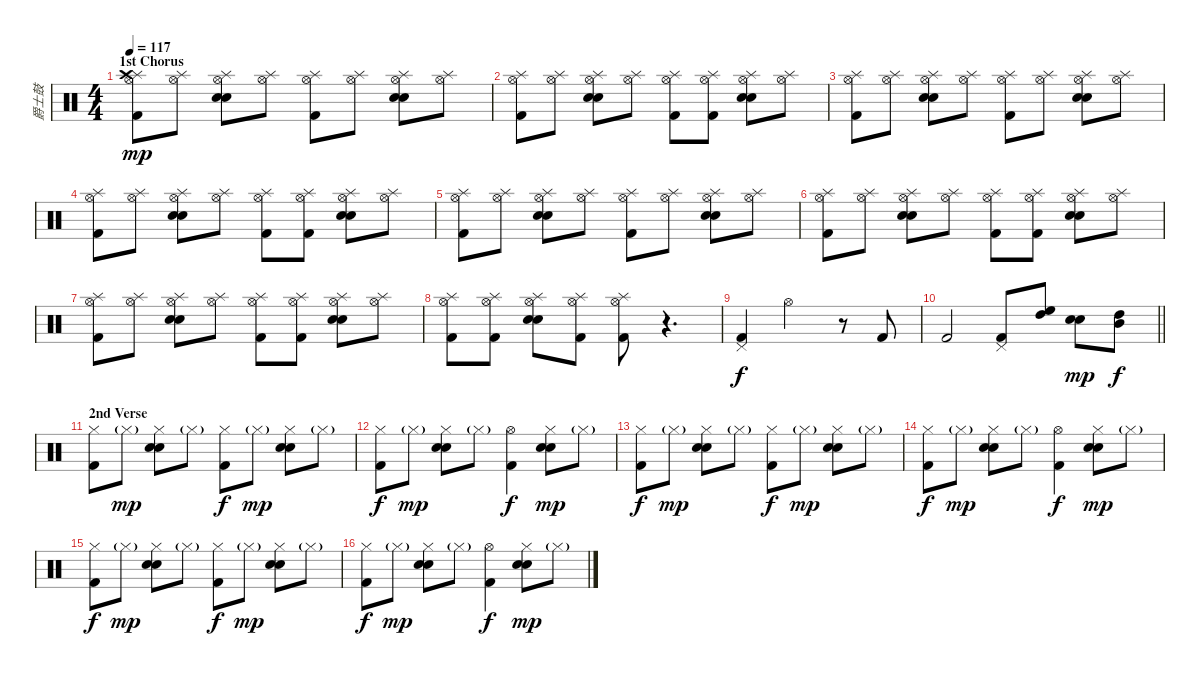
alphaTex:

\track ("爵士鼓" "爵士鼓") {instrument percussion}
\staff {score}
\articulation defaults
\ts (4 4)
\section ("" "1st Chorus")
\tempo 117
\clef neutral
\ks c
("Splash (hit)" "Crash high (hit)" "Hi-Hat (open)" "Kick (hit) 2").8{dy mp} ("Splash (hit)" "Hi-Hat (open)").8 ("Splash (hit)" "Hi-Hat (open)" "Electric Snare (hit)" "Snare (hit) 2").8 ("Splash (hit)" "Hi-Hat (open)").8 ("Splash (hit)" "Hi-Hat (open)" "Kick (hit) 2").8 ("Splash (hit)" "Hi-Hat (open)").8 ("Splash (hit)" "Hi-Hat (open)" "Electric Snare (hit)" "Snare (hit) 2").8 ("Splash (hit)" "Hi-Hat (open)").8 |
("Splash (hit)" "Hi-Hat (open)" "Kick (hit) 2").8 ("Splash (hit)" "Hi-Hat (open)").8 ("Splash (hit)" "Hi-Hat (open)" "Electric Snare (hit)" "Snare (hit) 2").8 ("Splash (hit)" "Hi-Hat (open)").8 ("Splash (hit)" "Hi-Hat (open)" "Kick (hit) 2").8 ("Splash (hit)" "Hi-Hat (open)" "Kick (hit) 2").8 ("Splash (hit)" "Hi-Hat (open)" "Electric Snare (hit)" "Snare (hit) 2").8 ("Splash (hit)" "Hi-Hat (open)").8 |
("Splash (hit)" "Hi-Hat (open)" "Kick (hit) 2").8 ("Splash (hit)" "Hi-Hat (open)").8 ("Splash (hit)" "Hi-Hat (open)" "Electric Snare (hit)" "Snare (hit) 2").8 ("Splash (hit)" "Hi-Hat (open)").8 ("Splash (hit)" "Hi-Hat (open)" "Kick (hit) 2").8 ("Splash (hit)" "Hi-Hat (open)").8 ("Splash (hit)" "Hi-Hat (open)" "Electric Snare (hit)" "Snare (hit) 2").8 ("Splash (hit)" "Hi-Hat (open)").8 |
("Splash (hit)" "Hi-Hat (open)" "Kick (hit) 2").8 ("Splash (hit)" "Hi-Hat (open)").8 ("Splash (hit)" "Hi-Hat (open)" "Electric Snare (hit)" "Snare (hit) 2").8 ("Splash (hit)" "Hi-Hat (open)").8 ("Splash (hit)" "Hi-Hat (open)" "Kick (hit) 2").8 ("Splash (hit)" "Hi-Hat (open)" "Kick (hit) 2").8 ("Splash (hit)" "Hi-Hat (open)" "Electric Snare (hit)" "Snare (hit) 2").8 ("Splash (hit)" "Hi-Hat (open)").8 |
("Splash (hit)" "Hi-Hat (open)" "Kick (hit) 2").8 ("Splash (hit)" "Hi-Hat (open)").8 ("Splash (hit)" "Hi-Hat (open)" "Electric Snare (hit)" "Snare (hit) 2").8 ("Splash (hit)" "Hi-Hat (open)").8 ("Splash (hit)" "Hi-Hat (open)" "Kick (hit) 2").8 ("Splash (hit)" "Hi-Hat (open)").8 ("Splash (hit)" "Hi-Hat (open)" "Electric Snare (hit)" "Snare (hit) 2").8 ("Splash (hit)" "Hi-Hat (open)").8 |
("Splash (hit)" "Hi-Hat (open)" "Kick (hit) 2").8 ("Splash (hit)" "Hi-Hat (open)").8 ("Splash (hit)" "Hi-Hat (open)" "Electric Snare (hit)" "Snare (hit) 2").8 ("Splash (hit)" "Hi-Hat (open)").8 ("Splash (hit)" "Hi-Hat (open)" "Kick (hit) 2").8 ("Splash (hit)" "Hi-Hat (open)" "Kick (hit) 2").8 ("Splash (hit)" "Hi-Hat (open)" "Electric Snare (hit)" "Snare (hit) 2").8 ("Splash (hit)" "Hi-Hat (open)").8 |
("Splash (hit)" "Hi-Hat (open)" "Kick (hit) 2").8 ("Splash (hit)" "Hi-Hat (open)").8 ("Splash (hit)" "Hi-Hat (open)" "Electric Snare (hit)" "Snare (hit) 2").8 ("Splash (hit)" "Hi-Hat (open)").8 ("Splash (hit)" "Hi-Hat (open)" "Kick (hit) 2").8 ("Splash (hit)" "Hi-Hat (open)" "Kick (hit) 2").8 ("Splash (hit)" "Hi-Hat (open)" "Electric Snare (hit)" "Snare (hit) 2").8 ("Splash (hit)" "Hi-Hat (open)").8 |
("Splash (hit)" "Hi-Hat (open)" "Kick (hit) 2").8 ("Splash (hit)" "Hi-Hat (open)" "Kick (hit) 2").8 ("Splash (hit)" "Hi-Hat (open)" "Electric Snare (hit)" "Snare (hit) 2").8 ("Splash (hit)" "Hi-Hat (open)" "Kick (hit) 2").8 ("Splash (hit)" "Hi-Hat (open)" "Kick (hit) 2").8 r.4{d} |
("Pedal Hi-Hat (hit)" "Kick (hit) 2").4{dy f} "Hi-Hat (open)".2 r.8 "Kick (hit) 2".8 |
\barLineRight lightlight "Kick (hit) 2".2
("Pedal Hi-Hat (hit)" "Kick (hit) 2").8 ("High Floor Tom (hit)" "High Tom (hit)").8 ("Electric Snare (hit)" "Snare (hit) 2").8{dy mp} ("Mid Tom (hit)" "High Tom (hit)").8{dy f} |
\section ("" "2nd Verse")
("Hi-Hat (closed)" "Kick (hit) 2").8 "Hi-Hat (closed)"{g}.8{dy mp} ("Hi-Hat (closed)" "Electric Snare (hit)" "Snare (hit) 2").8 "Hi-Hat (closed)"{g}.8 ("Hi-Hat (closed)" "Kick (hit) 2").8{dy f} "Hi-Hat (closed)"{g}.8{dy mp} ("Hi-Hat (closed)" "Electric Snare (hit)" "Snare (hit) 2").8 "Hi-Hat (closed)"{g}.8 |
("Hi-Hat (closed)" "Kick (hit) 2").8{dy f} "Hi-Hat (closed)"{g}.8{dy mp} ("Hi-Hat (closed)" "Electric Snare (hit)" "Snare (hit) 2").8 "Hi-Hat (closed)"{g}.8 ("Hi-Hat (open)" "Kick (hit) 2").4{dy f} ("Hi-Hat (closed)" "Electric Snare (hit)" "Snare (hit) 2").8{dy mp} "Hi-Hat (closed)"{g}.8 |
("Hi-Hat (closed)" "Kick (hit) 2").8{dy f} "Hi-Hat (closed)"{g}.8{dy mp} ("Hi-Hat (closed)" "Electric Snare (hit)" "Snare (hit) 2").8 "Hi-Hat (closed)"{g}.8 ("Hi-Hat (closed)" "Kick (hit) 2").8{dy f} "Hi-Hat (closed)"{g}.8{dy mp} ("Hi-Hat (closed)" "Electric Snare (hit)" "Snare (hit) 2").8 "Hi-Hat (closed)"{g}.8 |
("Hi-Hat (closed)" "Kick (hit) 2").8{dy f} "Hi-Hat (closed)"{g}.8{dy mp} ("Hi-Hat (closed)" "Electric Snare (hit)" "Snare (hit) 2").8 "Hi-Hat (closed)"{g}.8 ("Hi-Hat (open)" "Kick (hit) 2").4{dy f} ("Hi-Hat (closed)" "Electric Snare (hit)" "Snare (hit) 2").8{dy mp} "Hi-Hat (closed)"{g}.8 |
("Hi-Hat (closed)" "Kick (hit) 2").8{dy f} "Hi-Hat (closed)"{g}.8{dy mp} ("Hi-Hat (closed)" "Electric Snare (hit)" "Snare (hit) 2").8 "Hi-Hat (closed)"{g}.8 ("Hi-Hat (closed)" "Kick (hit) 2").8{dy f} "Hi-Hat (closed)"{g}.8{dy mp} ("Hi-Hat (closed)" "Electric Snare (hit)" "Snare (hit) 2").8 "Hi-Hat (closed)"{g}.8 |
("Hi-Hat (closed)" "Kick (hit) 2").8{dy f} "Hi-Hat (closed)"{g}.8{dy mp} ("Hi-Hat (closed)" "Electric Snare (hit)" "Snare (hit) 2").8 "Hi-Hat (closed)"{g}.8 ("Hi-Hat (open)" "Kick (hit) 2").4{dy f} ("Hi-Hat (closed)" "Electric Snare (hit)" "Snare (hit) 2").8{dy mp} "Hi-Hat (closed)"{g}.8
